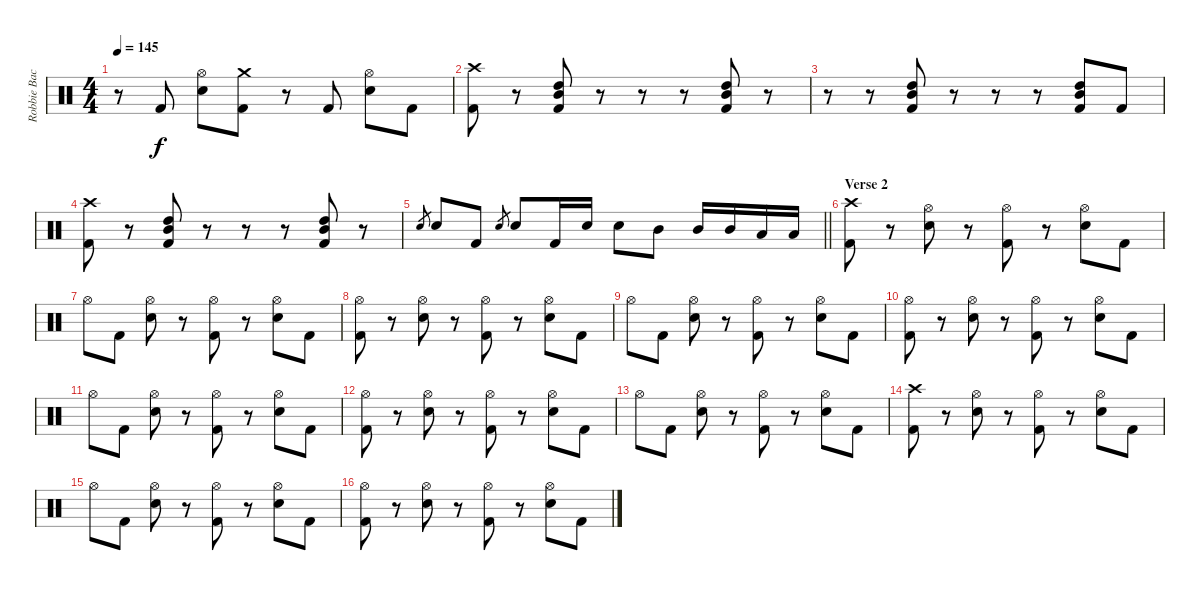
\track ("Robbie Bachman" "Robbie Bac") {instrument percussion}
\staff {score}
\articulation defaults
\ts (4 4)
\tempo 145
\clef neutral
\ks c
r.8{dy f} "Kick (hit) 2".8 ("Hi-Hat (open)" "Snare (hit) 2").8 ("Crash medium (hit)" "Kick (hit) 2").8 r.8 "Kick (hit) 2".8 ("Hi-Hat (open)" "Snare (hit) 2").8 "Kick (hit) 2".8 |
("Crash high (hit)" "Kick (hit) 2").8 r.8 ("Mid Tom (hit)" "High Tom (hit)" "Kick (hit) 2").8 r.8 r.8 r.8 ("Mid Tom (hit)" "High Tom (hit)" "Kick (hit) 2").8 r.8 |
r.8 r.8 ("Mid Tom (hit)" "High Tom (hit)" "Kick (hit) 2").8 r.8 r.8 r.8 ("Mid Tom (hit)" "High Tom (hit)" "Kick (hit) 2").8 "Kick (hit) 2".8 |
("Crash high (hit)" "Kick (hit) 2").8 r.8 ("Mid Tom (hit)" "High Tom (hit)" "Kick (hit) 2").8 r.8 r.8 r.8 ("Mid Tom (hit)" "High Tom (hit)" "Kick (hit) 2").8 r.8 |
\barLineRight lightlight "Snare (hit) 2".8{gr} "Snare (hit) 2".8 "Kick (hit) 2".8 "Snare (hit) 2".8{gr} "Snare (hit) 2".8 "Kick (hit) 2".16 "Snare (hit) 2".16 "Snare (hit) 2".8 "Mid Tom (hit)".8 "Mid Tom (hit)".16 "Mid Tom (hit)".16 "Low Tom (hit)".16 "Low Tom (hit)".16
|
\section ("" "Verse 2")
("Crash high (hit)" "Kick (hit) 2").8 r.8 ("Hi-Hat (open)" "Snare (hit) 2").8 r.8 ("Hi-Hat (open)" "Kick (hit) 2").8 r.8 ("Hi-Hat (open)" "Snare (hit) 2").8 "Kick (hit) 2".8 |
"Hi-Hat (open)".8 "Kick (hit) 2".8 ("Hi-Hat (open)" "Snare (hit) 2").8 r.8 ("Hi-Hat (open)" "Kick (hit) 2").8 r.8 ("Hi-Hat (open)" "Snare (hit) 2").8 "Kick (hit) 2".8 |
("Hi-Hat (open)" "Kick (hit) 2").8 r.8 ("Hi-Hat (open)" "Snare (hit) 2").8 r.8 ("Hi-Hat (open)" "Kick (hit) 2").8 r.8 ("Hi-Hat (open)" "Snare (hit) 2").8 "Kick (hit) 2".8 |
"Hi-Hat (open)".8 "Kick (hit) 2".8 ("Hi-Hat (open)" "Snare (hit) 2").8 r.8 ("Hi-Hat (open)" "Kick (hit) 2").8 r.8 ("Hi-Hat (open)" "Snare (hit) 2").8 "Kick (hit) 2".8 |
("Hi-Hat (open)" "Kick (hit) 2").8 r.8 ("Hi-Hat (open)" "Snare (hit) 2").8 r.8 ("Hi-Hat (open)" "Kick (hit) 2").8 r.8 ("Hi-Hat (open)" "Snare (hit) 2").8 "Kick (hit) 2".8 |
"Hi-Hat (open)".8 "Kick (hit) 2".8 ("Hi-Hat (open)" "Snare (hit) 2").8 r.8 ("Hi-Hat (open)" "Kick (hit) 2").8 r.8 ("Hi-Hat (open)" "Snare (hit) 2").8 "Kick (hit) 2".8 |
("Hi-Hat (open)" "Kick (hit) 2").8 r.8 ("Hi-Hat (open)" "Snare (hit) 2").8 r.8 ("Hi-Hat (open)" "Kick (hit) 2").8 r.8 ("Hi-Hat (open)" "Snare (hit) 2").8 "Kick (hit) 2".8 |
"Hi-Hat (open)".8 "Kick (hit) 2".8 ("Hi-Hat (open)" "Snare (hit) 2").8 r.8 ("Hi-Hat (open)" "Kick (hit) 2").8 r.8 ("Hi-Hat (open)" "Snare (hit) 2").8 "Kick (hit) 2".8 |
("Crash high (hit)" "Kick (hit) 2").8 r.8 ("Hi-Hat (open)" "Snare (hit) 2").8 r.8 ("Hi-Hat (open)" "Kick (hit) 2").8 r.8 ("Hi-Hat (open)" "Snare (hit) 2").8 "Kick (hit) 2".8 |
"Hi-Hat (open)".8 "Kick (hit) 2".8 ("Hi-Hat (open)" "Snare (hit) 2").8 r.8 ("Hi-Hat (open)" "Kick (hit) 2").8 r.8 ("Hi-Hat (open)" "Snare (hit) 2").8 "Kick (hit) 2".8 |
("Hi-Hat (open)" "Kick (hit) 2").8 r.8 ("Hi-Hat (open)" "Snare (hit) 2").8 r.8 ("Hi-Hat (open)" "Kick (hit) 2").8 r.8 ("Hi-Hat (open)" "Snare (hit) 2").8 "Kick (hit) 2".8
